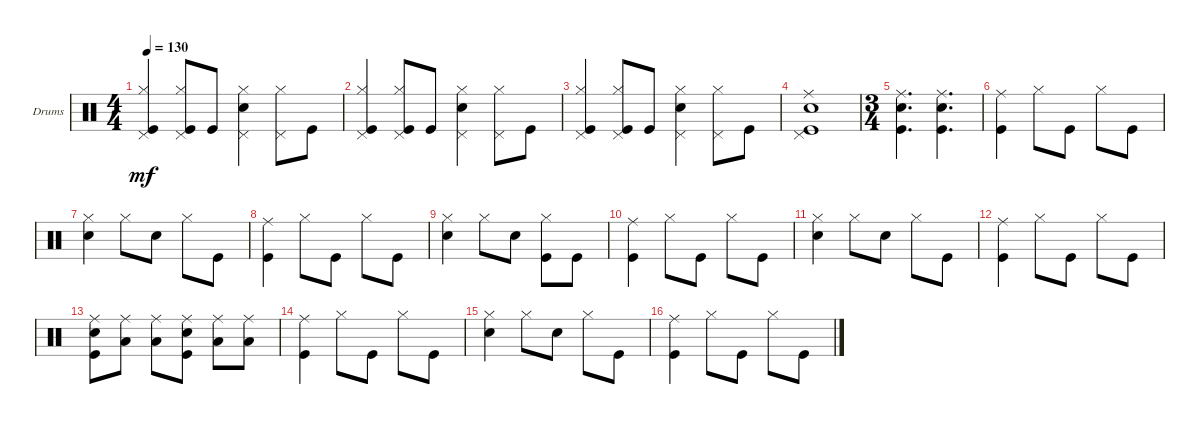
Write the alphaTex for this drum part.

\defaultSystemsLayout 4
\bracketExtendMode groupsimilarinstruments
\firstSystemTrackNameOrientation horizontal
\otherSystemsTrackNameOrientation horizontal
\chordDiagramsInScore
\track ("Drumkit" "Drums") {instrument percussion}
\staff {score}
\articulation defaults
\ts (4 4)
\tempo 130
\clef neutral
\ks c
("Kick (hit)" "Hi-Hat (closed)" "Pedal Hi-Hat (hit)").4{dy mf} ("Kick (hit)" "Hi-Hat (closed)" "Pedal Hi-Hat (hit)").8 "Kick (hit)".8 ("Snare (hit) 2" "Hi-Hat (closed)" "Pedal Hi-Hat (hit)").4 ("Pedal Hi-Hat (hit)" "Hi-Hat (closed)").8 "Kick (hit)".8 |
("Kick (hit)" "Hi-Hat (closed)" "Pedal Hi-Hat (hit)").4 ("Kick (hit)" "Hi-Hat (closed)" "Pedal Hi-Hat (hit)").8 "Kick (hit)".8 ("Snare (hit) 2" "Hi-Hat (closed)" "Pedal Hi-Hat (hit)").4 ("Pedal Hi-Hat (hit)" "Hi-Hat (closed)").8 "Kick (hit)".8 |
("Kick (hit)" "Hi-Hat (closed)" "Pedal Hi-Hat (hit)").4 ("Kick (hit)" "Hi-Hat (closed)" "Pedal Hi-Hat (hit)").8 "Kick (hit)".8 ("Snare (hit) 2" "Hi-Hat (closed)" "Pedal Hi-Hat (hit)").4 ("Pedal Hi-Hat (hit)" "Hi-Hat (closed)").8 "Kick (hit)".8 |
("Kick (hit)" "Snare (hit) 2" "Pedal Hi-Hat (hit)" "Ride (middle)").1 |
\ts (3 4)
("Snare (hit) 2" "Kick (hit)" "Ride (middle)").4{d} ("Kick (hit)" "Snare (hit) 2" "Ride (middle)").4{d} |
("Kick (hit)" "Ride (middle)").4 "Hi-Hat (closed)".8 "Kick (hit)".8 "Hi-Hat (closed)".8 "Kick (hit)".8 |
("Hi-Hat (closed)" "Snare (hit) 2").4 "Hi-Hat (closed)".8 "Snare (hit) 2".8 "Hi-Hat (closed)".8 "Kick (hit)".8 |
("Kick (hit)" "Ride (middle)").4 "Hi-Hat (closed)".8 "Kick (hit)".8 "Hi-Hat (closed)".8 "Kick (hit)".8 |
("Hi-Hat (closed)" "Snare (hit) 2").4 "Hi-Hat (closed)".8 "Snare (hit) 2".8 ("Kick (hit)" "Hi-Hat (closed)").8 "Kick (hit)".8 |
("Kick (hit)" "Ride (middle)").4 "Hi-Hat (closed)".8 "Kick (hit)".8 "Hi-Hat (closed)".8 "Kick (hit)".8 |
("Hi-Hat (closed)" "Snare (hit) 2").4 "Hi-Hat (closed)".8 "Snare (hit) 2".8 "Hi-Hat (closed)".8 "Kick (hit)".8 |
("Kick (hit)" "Ride (middle)").4 "Hi-Hat (closed)".8 "Kick (hit)".8 "Hi-Hat (closed)".8 "Kick (hit)".8 |
("Snare (hit) 2" "Kick (hit)" "Ride (middle)").8 ("Ride (middle)" "Low Tom (hit)").8 ("Ride (middle)" "Low Tom (hit)").8 ("Kick (hit)" "Snare (hit) 2" "Ride (middle)").8 ("Ride (middle)" "Low Tom (hit)").8 ("Ride (middle)" "Low Tom (hit)").8 |
("Kick (hit)" "Ride (middle)").4 "Hi-Hat (closed)".8 "Kick (hit)".8 "Hi-Hat (closed)".8 "Kick (hit)".8 |
("Hi-Hat (closed)" "Snare (hit) 2").4 "Hi-Hat (closed)".8 "Snare (hit) 2".8 "Hi-Hat (closed)".8 "Kick (hit)".8 |
("Kick (hit)" "Ride (middle)").4 "Hi-Hat (closed)".8 "Kick (hit)".8 "Hi-Hat (closed)".8 "Kick (hit)".8
